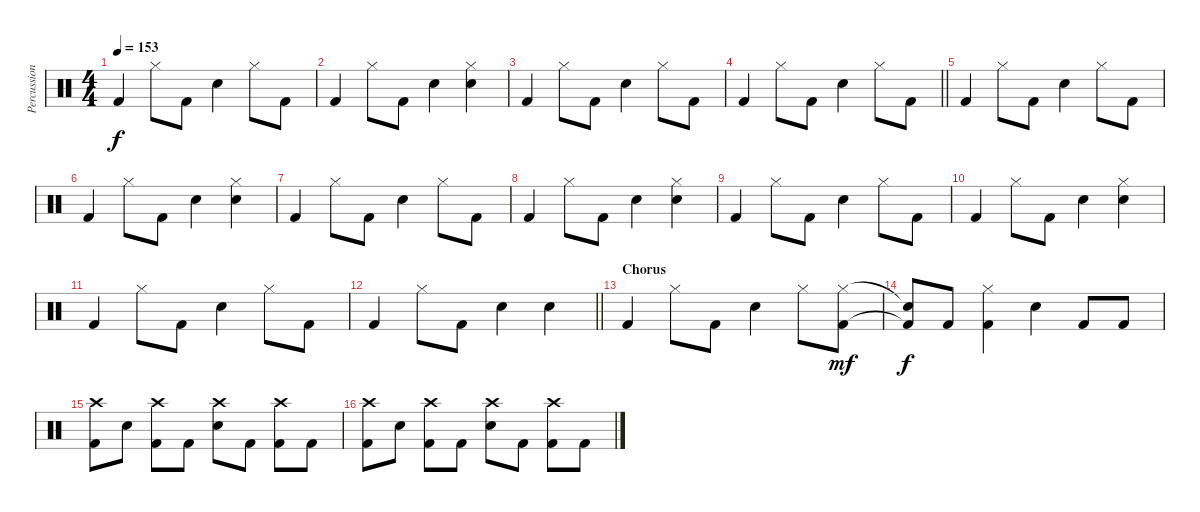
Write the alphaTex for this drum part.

\track ("Percussion" "Percussion") {instrument percussion}
\staff {score}
\articulation defaults
\ts (4 4)
\tempo 153
\clef neutral
\ks c "Kick (hit) 2".4{dy f} "Hi-Hat (closed)".8 "Kick (hit) 2".8 "Snare (hit) 2".4 "Hi-Hat (closed)".8 "Kick (hit) 2".8
|
"Kick (hit) 2".4 "Hi-Hat (closed)".8 "Kick (hit) 2".8 "Snare (hit) 2".4 ("Snare (hit) 2" "Hi-Hat (closed)").4 |
"Kick (hit) 2".4 "Hi-Hat (closed)".8 "Kick (hit) 2".8 "Snare (hit) 2".4 "Hi-Hat (closed)".8 "Kick (hit) 2".8 |
\barLineRight lightlight "Kick (hit) 2".4 "Hi-Hat (closed)".8 "Kick (hit) 2".8 "Snare (hit) 2".4 "Hi-Hat (closed)".8 "Kick (hit) 2".8
|
"Kick (hit) 2".4 "Hi-Hat (closed)".8 "Kick (hit) 2".8 "Snare (hit) 2".4 "Hi-Hat (closed)".8 "Kick (hit) 2".8 |
"Kick (hit) 2".4 "Hi-Hat (closed)".8 "Kick (hit) 2".8 "Snare (hit) 2".4 ("Snare (hit) 2" "Hi-Hat (closed)").4 |
"Kick (hit) 2".4 "Hi-Hat (closed)".8 "Kick (hit) 2".8 "Snare (hit) 2".4 "Hi-Hat (closed)".8 "Kick (hit) 2".8 |
"Kick (hit) 2".4 "Hi-Hat (closed)".8 "Kick (hit) 2".8 "Snare (hit) 2".4 ("Snare (hit) 2" "Hi-Hat (closed)").4 |
"Kick (hit) 2".4 "Hi-Hat (closed)".8 "Kick (hit) 2".8 "Snare (hit) 2".4 "Hi-Hat (closed)".8 "Kick (hit) 2".8 |
"Kick (hit) 2".4 "Hi-Hat (closed)".8 "Kick (hit) 2".8 "Snare (hit) 2".4 ("Snare (hit) 2" "Hi-Hat (closed)").4 |
"Kick (hit) 2".4 "Hi-Hat (closed)".8 "Kick (hit) 2".8 "Snare (hit) 2".4 "Hi-Hat (closed)".8 "Kick (hit) 2".8 |
\barLineRight lightlight "Kick (hit) 2".4 "Hi-Hat (closed)".8 "Kick (hit) 2".8 "Snare (hit) 2".4 "Snare (hit) 2".4
|
\section ("" "Chorus")
"Kick (hit) 2".4 "Hi-Hat (closed)".8 "Kick (hit) 2".8 "Snare (hit) 2".4 "Hi-Hat (closed)".8 ("Kick (hit) 2" "Hi-Hat (closed)").8{dy mf} |
("Kick (hit) 2"{t} "Snare (hit)"{t}).8{dy f} "Kick (hit) 2".8 ("Kick (hit) 2" "Hi-Hat (closed)").4 "Snare (hit) 2".4 "Kick (hit) 2".8 "Kick (hit) 2".8 |
("Kick (hit) 2" "Crash high (hit)").8 "Snare (hit) 2".8 ("Kick (hit) 2" "Crash high (hit)").8 "Kick (hit) 2".8 ("Snare (hit) 2" "Crash high (hit)").8 "Kick (hit) 2".8 ("Kick (hit) 2" "Crash high (hit)").8 "Kick (hit) 2".8 |
("Kick (hit) 2" "Crash high (hit)").8 "Snare (hit) 2".8 ("Kick (hit) 2" "Crash high (hit)").8 "Kick (hit) 2".8 ("Snare (hit) 2" "Crash high (hit)").8 "Kick (hit) 2".8 ("Kick (hit) 2" "Crash high (hit)").8 "Kick (hit) 2".8
